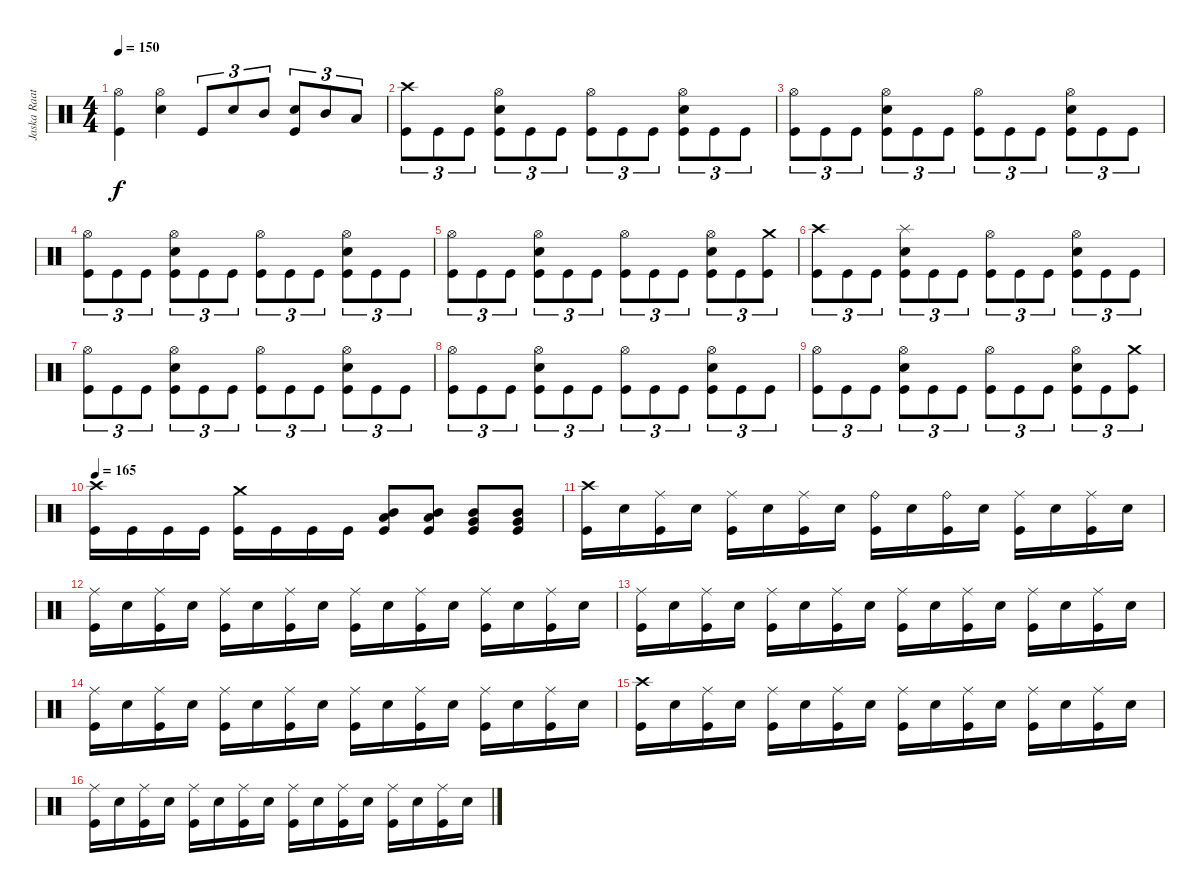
\track ("Jaska Raatikainen" "Jaska Raat") {instrument percussion}
\staff {score}
\articulation defaults
\ts (4 4)
\tempo 150
\clef neutral
\ks c
("Hi-Hat (open)" "Kick (hit)").4{dy f} ("Hi-Hat (open)" "Electric Snare (hit)").4 "Kick (hit)".8{tu (3 2)} "Electric Snare (hit)".8{tu (3 2)} "Mid Tom (hit)".8{tu (3 2)} ("Electric Snare (hit)" "Kick (hit)").8{tu (3 2)} "Mid Tom (hit)".8{tu (3 2)} "Low Tom (hit)".8{tu (3 2)} |
("Crash high (hit)" "Kick (hit)").8{tu (3 2)} "Kick (hit)".8{tu (3 2)} "Kick (hit)".8{tu (3 2)} ("Hi-Hat (open)" "Electric Snare (hit)" "Kick (hit)").8{tu (3 2)} "Kick (hit)".8{tu (3 2)} "Kick (hit)".8{tu (3 2)} ("Hi-Hat (open)" "Kick (hit)").8{tu (3 2)} "Kick (hit)".8{tu (3 2)} "Kick (hit)".8{tu (3 2)} ("Hi-Hat (open)" "Electric Snare (hit)" "Kick (hit)").8{tu (3 2)} "Kick (hit)".8{tu (3 2)} "Kick (hit)".8{tu (3 2)} |
("Hi-Hat (open)" "Kick (hit)").8{tu (3 2)} "Kick (hit)".8{tu (3 2)} "Kick (hit)".8{tu (3 2)} ("Hi-Hat (open)" "Electric Snare (hit)" "Kick (hit)").8{tu (3 2)} "Kick (hit)".8{tu (3 2)} "Kick (hit)".8{tu (3 2)} ("Hi-Hat (open)" "Kick (hit)").8{tu (3 2)} "Kick (hit)".8{tu (3 2)} "Kick (hit)".8{tu (3 2)} ("Hi-Hat (open)" "Electric Snare (hit)" "Kick (hit)").8{tu (3 2)} "Kick (hit)".8{tu (3 2)} "Kick (hit)".8{tu (3 2)} |
("Hi-Hat (open)" "Kick (hit)").8{tu (3 2)} "Kick (hit)".8{tu (3 2)} "Kick (hit)".8{tu (3 2)} ("Hi-Hat (open)" "Electric Snare (hit)" "Kick (hit)").8{tu (3 2)} "Kick (hit)".8{tu (3 2)} "Kick (hit)".8{tu (3 2)} ("Hi-Hat (open)" "Kick (hit)").8{tu (3 2)} "Kick (hit)".8{tu (3 2)} "Kick (hit)".8{tu (3 2)} ("Hi-Hat (open)" "Electric Snare (hit)" "Kick (hit)").8{tu (3 2)} "Kick (hit)".8{tu (3 2)} "Kick (hit)".8{tu (3 2)} |
("Hi-Hat (open)" "Kick (hit)").8{tu (3 2)} "Kick (hit)".8{tu (3 2)} "Kick (hit)".8{tu (3 2)} ("Hi-Hat (open)" "Electric Snare (hit)" "Kick (hit)").8{tu (3 2)} "Kick (hit)".8{tu (3 2)} "Kick (hit)".8{tu (3 2)} ("Hi-Hat (open)" "Kick (hit)").8{tu (3 2)} "Kick (hit)".8{tu (3 2)} "Kick (hit)".8{tu (3 2)} ("Hi-Hat (open)" "Electric Snare (hit)" "Kick (hit)").8{tu (3 2)} "Kick (hit)".8{tu (3 2)} ("Crash medium (hit)" "Kick (hit)").8{tu (3 2)} |
("Crash high (hit)" "Kick (hit)").8{tu (3 2)} "Kick (hit)".8{tu (3 2)} "Kick (hit)".8{tu (3 2)} ("Splash (hit)" "Electric Snare (hit)" "Kick (hit)").8{tu (3 2)} "Kick (hit)".8{tu (3 2)} "Kick (hit)".8{tu (3 2)} ("Hi-Hat (open)" "Kick (hit)").8{tu (3 2)} "Kick (hit)".8{tu (3 2)} "Kick (hit)".8{tu (3 2)} ("Hi-Hat (open)" "Electric Snare (hit)" "Kick (hit)").8{tu (3 2)} "Kick (hit)".8{tu (3 2)} "Kick (hit)".8{tu (3 2)} |
("Hi-Hat (open)" "Kick (hit)").8{tu (3 2)} "Kick (hit)".8{tu (3 2)} "Kick (hit)".8{tu (3 2)} ("Hi-Hat (open)" "Electric Snare (hit)" "Kick (hit)").8{tu (3 2)} "Kick (hit)".8{tu (3 2)} "Kick (hit)".8{tu (3 2)} ("Hi-Hat (open)" "Kick (hit)").8{tu (3 2)} "Kick (hit)".8{tu (3 2)} "Kick (hit)".8{tu (3 2)} ("Hi-Hat (open)" "Electric Snare (hit)" "Kick (hit)").8{tu (3 2)} "Kick (hit)".8{tu (3 2)} "Kick (hit)".8{tu (3 2)} |
("Hi-Hat (open)" "Kick (hit)").8{tu (3 2)} "Kick (hit)".8{tu (3 2)} "Kick (hit)".8{tu (3 2)} ("Hi-Hat (open)" "Electric Snare (hit)" "Kick (hit)").8{tu (3 2)} "Kick (hit)".8{tu (3 2)} "Kick (hit)".8{tu (3 2)} ("Hi-Hat (open)" "Kick (hit)").8{tu (3 2)} "Kick (hit)".8{tu (3 2)} "Kick (hit)".8{tu (3 2)} ("Hi-Hat (open)" "Electric Snare (hit)" "Kick (hit)").8{tu (3 2)} "Kick (hit)".8{tu (3 2)} "Kick (hit)".8{tu (3 2)} |
("Hi-Hat (open)" "Kick (hit)").8{tu (3 2)} "Kick (hit)".8{tu (3 2)} "Kick (hit)".8{tu (3 2)} ("Hi-Hat (open)" "Electric Snare (hit)" "Kick (hit)").8{tu (3 2)} "Kick (hit)".8{tu (3 2)} "Kick (hit)".8{tu (3 2)} ("Hi-Hat (open)" "Kick (hit)").8{tu (3 2)} "Kick (hit)".8{tu (3 2)} "Kick (hit)".8{tu (3 2)} ("Hi-Hat (open)" "Electric Snare (hit)" "Kick (hit)").8{tu (3 2)} "Kick (hit)".8{tu (3 2)} ("Crash medium (hit)" "Kick (hit)").8{tu (3 2)} |
\tempo 165
("Crash high (hit)" "Kick (hit)").16 "Kick (hit)".16 "Kick (hit)".16 "Kick (hit)".16 ("Crash medium (hit)" "Kick (hit)").16 "Kick (hit)".16 "Kick (hit)".16 "Kick (hit)".16 ("Mid Tom (hit)" "Low Tom (hit)" "Kick (hit)").8 ("Mid Tom (hit)" "Low Tom (hit)" "Kick (hit)").8 ("Mid Tom (hit)" "Very Low Tom (hit)" "Kick (hit)").8 ("Mid Tom (hit)" "Very Low Tom (hit)" "Kick (hit)").8 |
("Crash high (hit)" "Kick (hit)").16 "Electric Snare (hit)".16 ("Ride (middle)" "Kick (hit)").16 "Electric Snare (hit)".16 ("Ride (middle)" "Kick (hit)").16 "Electric Snare (hit)".16 ("Ride (middle)" "Kick (hit)").16 "Electric Snare (hit)".16 ("Ride (bell)" "Kick (hit)").16 "Electric Snare (hit)".16 ("Ride (bell)" "Kick (hit)").16 "Electric Snare (hit)".16 ("Ride (middle)" "Kick (hit)").16 "Electric Snare (hit)".16 ("Ride (middle)" "Kick (hit)").16 "Electric Snare (hit)".16 |
("Ride (middle)" "Kick (hit)").16 "Electric Snare (hit)".16 ("Ride (middle)" "Kick (hit)").16 "Electric Snare (hit)".16 ("Ride (middle)" "Kick (hit)").16 "Electric Snare (hit)".16 ("Ride (middle)" "Kick (hit)").16 "Electric Snare (hit)".16 ("Ride (middle)" "Kick (hit)").16 "Electric Snare (hit)".16 ("Ride (middle)" "Kick (hit)").16 "Electric Snare (hit)".16 ("Ride (middle)" "Kick (hit)").16 "Electric Snare (hit)".16 ("Ride (middle)" "Kick (hit)").16 "Electric Snare (hit)".16 |
("Ride (middle)" "Kick (hit)").16 "Electric Snare (hit)".16 ("Ride (middle)" "Kick (hit)").16 "Electric Snare (hit)".16 ("Ride (middle)" "Kick (hit)").16 "Electric Snare (hit)".16 ("Ride (middle)" "Kick (hit)").16 "Electric Snare (hit)".16 ("Ride (middle)" "Kick (hit)").16 "Electric Snare (hit)".16 ("Ride (middle)" "Kick (hit)").16 "Electric Snare (hit)".16 ("Ride (middle)" "Kick (hit)").16 "Electric Snare (hit)".16 ("Ride (middle)" "Kick (hit)").16 "Electric Snare (hit)".16 |
("Ride (middle)" "Kick (hit)").16 "Electric Snare (hit)".16 ("Ride (middle)" "Kick (hit)").16 "Electric Snare (hit)".16 ("Ride (middle)" "Kick (hit)").16 "Electric Snare (hit)".16 ("Ride (middle)" "Kick (hit)").16 "Electric Snare (hit)".16 ("Ride (middle)" "Kick (hit)").16 "Electric Snare (hit)".16 ("Ride (middle)" "Kick (hit)").16 "Electric Snare (hit)".16 ("Ride (middle)" "Kick (hit)").16 "Electric Snare (hit)".16 ("Ride (middle)" "Kick (hit)").16 "Electric Snare (hit)".16 |
("Crash high (hit)" "Kick (hit)").16 "Electric Snare (hit)".16 ("Ride (middle)" "Kick (hit)").16 "Electric Snare (hit)".16 ("Ride (middle)" "Kick (hit)").16 "Electric Snare (hit)".16 ("Ride (middle)" "Kick (hit)").16 "Electric Snare (hit)".16 ("Ride (middle)" "Kick (hit)").16 "Electric Snare (hit)".16 ("Ride (middle)" "Kick (hit)").16 "Electric Snare (hit)".16 ("Ride (middle)" "Kick (hit)").16 "Electric Snare (hit)".16 ("Ride (middle)" "Kick (hit)").16 "Electric Snare (hit)".16 |
("Ride (middle)" "Kick (hit)").16 "Electric Snare (hit)".16 ("Ride (middle)" "Kick (hit)").16 "Electric Snare (hit)".16 ("Ride (middle)" "Kick (hit)").16 "Electric Snare (hit)".16 ("Ride (middle)" "Kick (hit)").16 "Electric Snare (hit)".16 ("Ride (middle)" "Kick (hit)").16 "Electric Snare (hit)".16 ("Ride (middle)" "Kick (hit)").16 "Electric Snare (hit)".16 ("Ride (middle)" "Kick (hit)").16 "Electric Snare (hit)".16 ("Ride (middle)" "Kick (hit)").16 "Electric Snare (hit)".16
